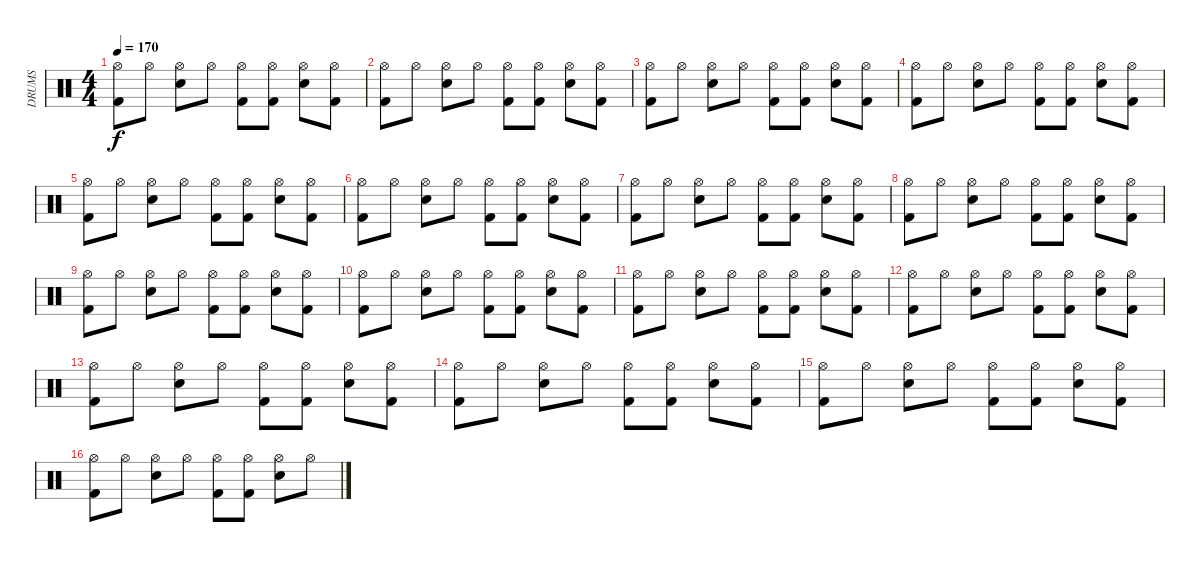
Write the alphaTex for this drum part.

\track ("DRUMS" "DRUMS") {instrument percussion}
\staff {score}
\articulation defaults
\ts (4 4)
\tempo 170
\clef neutral
\ks c
("Hi-Hat (open)" "Kick (hit) 2").8{dy f} "Hi-Hat (open)".8 ("Hi-Hat (open)" "Snare (hit) 2").8 "Hi-Hat (open)".8 ("Hi-Hat (open)" "Kick (hit) 2").8 ("Hi-Hat (open)" "Kick (hit) 2").8 ("Hi-Hat (open)" "Snare (hit) 2").8 ("Hi-Hat (open)" "Kick (hit) 2").8 |
("Hi-Hat (open)" "Kick (hit) 2").8 "Hi-Hat (open)".8 ("Hi-Hat (open)" "Snare (hit) 2").8 "Hi-Hat (open)".8 ("Hi-Hat (open)" "Kick (hit) 2").8 ("Hi-Hat (open)" "Kick (hit) 2").8 ("Hi-Hat (open)" "Snare (hit) 2").8 ("Hi-Hat (open)" "Kick (hit) 2").8 |
("Hi-Hat (open)" "Kick (hit) 2").8 "Hi-Hat (open)".8 ("Hi-Hat (open)" "Snare (hit) 2").8 "Hi-Hat (open)".8 ("Hi-Hat (open)" "Kick (hit) 2").8 ("Hi-Hat (open)" "Kick (hit) 2").8 ("Hi-Hat (open)" "Snare (hit) 2").8 ("Hi-Hat (open)" "Kick (hit) 2").8 |
("Hi-Hat (open)" "Kick (hit) 2").8 "Hi-Hat (open)".8 ("Hi-Hat (open)" "Snare (hit) 2").8 "Hi-Hat (open)".8 ("Hi-Hat (open)" "Kick (hit) 2").8 ("Hi-Hat (open)" "Kick (hit) 2").8 ("Hi-Hat (open)" "Snare (hit) 2").8 ("Hi-Hat (open)" "Kick (hit) 2").8 |
("Hi-Hat (open)" "Kick (hit) 2").8 "Hi-Hat (open)".8 ("Hi-Hat (open)" "Snare (hit) 2").8 "Hi-Hat (open)".8 ("Hi-Hat (open)" "Kick (hit) 2").8 ("Hi-Hat (open)" "Kick (hit) 2").8 ("Hi-Hat (open)" "Snare (hit) 2").8 ("Hi-Hat (open)" "Kick (hit) 2").8 |
("Hi-Hat (open)" "Kick (hit) 2").8 "Hi-Hat (open)".8 ("Hi-Hat (open)" "Snare (hit) 2").8 "Hi-Hat (open)".8 ("Hi-Hat (open)" "Kick (hit) 2").8 ("Hi-Hat (open)" "Kick (hit) 2").8 ("Hi-Hat (open)" "Snare (hit) 2").8 ("Hi-Hat (open)" "Kick (hit) 2").8 |
("Hi-Hat (open)" "Kick (hit) 2").8 "Hi-Hat (open)".8 ("Hi-Hat (open)" "Snare (hit) 2").8 "Hi-Hat (open)".8 ("Hi-Hat (open)" "Kick (hit) 2").8 ("Hi-Hat (open)" "Kick (hit) 2").8 ("Hi-Hat (open)" "Snare (hit) 2").8 ("Hi-Hat (open)" "Kick (hit) 2").8 |
("Hi-Hat (open)" "Kick (hit) 2").8 "Hi-Hat (open)".8 ("Hi-Hat (open)" "Snare (hit) 2").8 "Hi-Hat (open)".8 ("Hi-Hat (open)" "Kick (hit) 2").8 ("Hi-Hat (open)" "Kick (hit) 2").8 ("Hi-Hat (open)" "Snare (hit) 2").8 ("Hi-Hat (open)" "Kick (hit) 2").8 |
("Hi-Hat (open)" "Kick (hit) 2").8 "Hi-Hat (open)".8 ("Hi-Hat (open)" "Snare (hit) 2").8 "Hi-Hat (open)".8 ("Hi-Hat (open)" "Kick (hit) 2").8 ("Hi-Hat (open)" "Kick (hit) 2").8 ("Hi-Hat (open)" "Snare (hit) 2").8 ("Hi-Hat (open)" "Kick (hit) 2").8 |
("Hi-Hat (open)" "Kick (hit) 2").8 "Hi-Hat (open)".8 ("Hi-Hat (open)" "Snare (hit) 2").8 "Hi-Hat (open)".8 ("Hi-Hat (open)" "Kick (hit) 2").8 ("Hi-Hat (open)" "Kick (hit) 2").8 ("Hi-Hat (open)" "Snare (hit) 2").8 ("Hi-Hat (open)" "Kick (hit) 2").8 |
("Hi-Hat (open)" "Kick (hit) 2").8 "Hi-Hat (open)".8 ("Hi-Hat (open)" "Snare (hit) 2").8 "Hi-Hat (open)".8 ("Hi-Hat (open)" "Kick (hit) 2").8 ("Hi-Hat (open)" "Kick (hit) 2").8 ("Hi-Hat (open)" "Snare (hit) 2").8 ("Hi-Hat (open)" "Kick (hit) 2").8 |
("Hi-Hat (open)" "Kick (hit) 2").8 "Hi-Hat (open)".8 ("Hi-Hat (open)" "Snare (hit) 2").8 "Hi-Hat (open)".8 ("Hi-Hat (open)" "Kick (hit) 2").8 ("Hi-Hat (open)" "Kick (hit) 2").8 ("Hi-Hat (open)" "Snare (hit) 2").8 ("Hi-Hat (open)" "Kick (hit) 2").8 |
("Hi-Hat (open)" "Kick (hit) 2").8 "Hi-Hat (open)".8 ("Hi-Hat (open)" "Snare (hit) 2").8 "Hi-Hat (open)".8 ("Hi-Hat (open)" "Kick (hit) 2").8 ("Hi-Hat (open)" "Kick (hit) 2").8 ("Hi-Hat (open)" "Snare (hit) 2").8 ("Hi-Hat (open)" "Kick (hit) 2").8 |
("Hi-Hat (open)" "Kick (hit) 2").8 "Hi-Hat (open)".8 ("Hi-Hat (open)" "Snare (hit) 2").8 "Hi-Hat (open)".8 ("Hi-Hat (open)" "Kick (hit) 2").8 ("Hi-Hat (open)" "Kick (hit) 2").8 ("Hi-Hat (open)" "Snare (hit) 2").8 ("Hi-Hat (open)" "Kick (hit) 2").8 |
("Hi-Hat (open)" "Kick (hit) 2").8 "Hi-Hat (open)".8 ("Hi-Hat (open)" "Snare (hit) 2").8 "Hi-Hat (open)".8 ("Hi-Hat (open)" "Kick (hit) 2").8 ("Hi-Hat (open)" "Kick (hit) 2").8 ("Hi-Hat (open)" "Snare (hit) 2").8 ("Hi-Hat (open)" "Kick (hit) 2").8 |
("Hi-Hat (open)" "Kick (hit) 2").8 "Hi-Hat (open)".8 ("Hi-Hat (open)" "Snare (hit) 2").8 "Hi-Hat (open)".8 ("Hi-Hat (open)" "Kick (hit) 2").8 ("Hi-Hat (open)" "Kick (hit) 2").8 ("Hi-Hat (open)" "Snare (hit) 2").8 "Hi-Hat (open)".8
